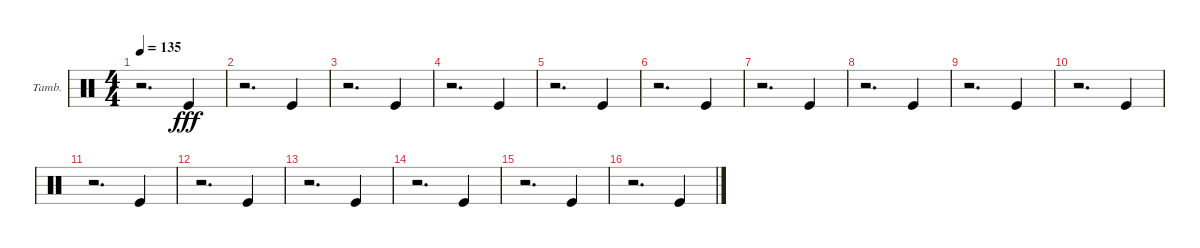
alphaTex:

\defaultSystemsLayout 4
\bracketExtendMode groupsimilarinstruments
\firstSystemTrackNameOrientation horizontal
\otherSystemsTrackNameOrientation horizontal
\track ("Tambourine" "Tamb.") {instrument percussion}
\staff {score}
\articulation defaults
\ts (4 4)
\tempo 135
\clef neutral
\scale
0.333333
\ks c
r.2{d dy fff} "Kick (hit)".4 |
\scale
0.333333 r.2{d} "Kick (hit)".4 |
\scale
0.333333 r.2{d} "Kick (hit)".4 |
\scale
0.333333 r.2{d} "Kick (hit)".4 |
\scale
0.333333 r.2{d} "Kick (hit)".4 |
\scale
0.333333 r.2{d} "Kick (hit)".4 |
\scale
0.333333 r.2{d} "Kick (hit)".4 |
\scale
0.333333 r.2{d} "Kick (hit)".4 |
\scale
0.333333 r.2{d} "Kick (hit)".4 |
\scale
0.333333 r.2{d} "Kick (hit)".4 |
\scale
0.333333 r.2{d} "Kick (hit)".4 |
\scale
0.333333 r.2{d} "Kick (hit)".4 |
\scale
0.333333 r.2{d} "Kick (hit)".4 |
\scale
0.333333 r.2{d} "Kick (hit)".4 |
\scale
0.333333 r.2{d} "Kick (hit)".4 |
\scale
0.333333 r.2{d} "Kick (hit)".4
